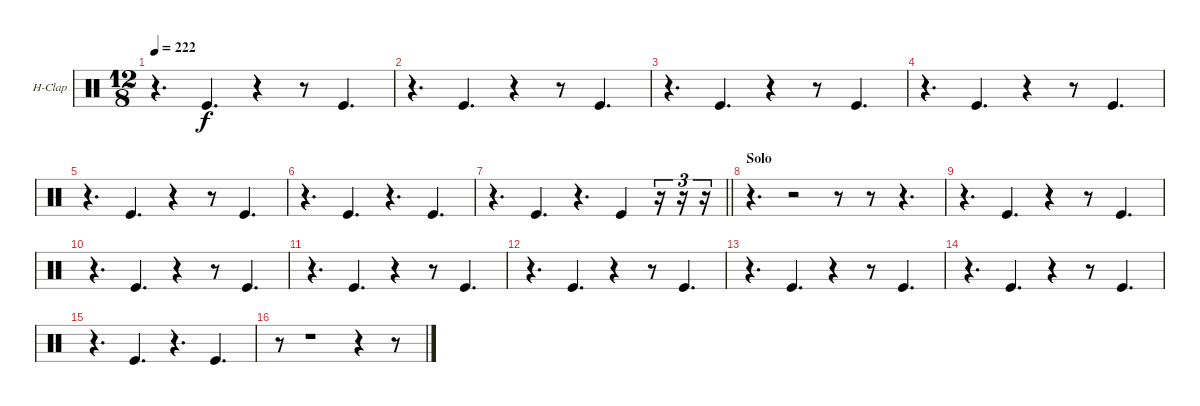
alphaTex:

\bracketExtendMode nobrackets
\firstSystemTrackNameOrientation horizontal
\otherSystemsTrackNameOrientation horizontal
\track ("Hand Clap" "H-Clap") {instrument percussion}
\staff {score}
\articulation defaults
\ts (12 8)
\tempo 222
\clef neutral
\ks c
r.4{d dy f} "Kick (hit)".4{d} r.4 r.8 "Kick (hit)".4{d} |
r.4{d} "Kick (hit)".4{d} r.4 r.8 "Kick (hit)".4{d} |
r.4{d} "Kick (hit)".4{d} r.4 r.8 "Kick (hit)".4{d} |
r.4{d} "Kick (hit)".4{d} r.4 r.8 "Kick (hit)".4{d} |
r.4{d} "Kick (hit)".4{d} r.4 r.8 "Kick (hit)".4{d} |
r.4{d} "Kick (hit)".4{d} r.4{d} "Kick (hit)".4{d} |
\barLineRight lightlight
r.4{d} "Kick (hit)".4{d} r.4{d} "Kick (hit)".4 r.16{tu (3 2)} r.16{tu (3 2)} r.16{tu (3 2)} |
\section ("" "Solo")
r.4{d} r.2 r.8 r.8 r.4{d} |
r.4{d} "Kick (hit)".4{d} r.4 r.8 "Kick (hit)".4{d} |
r.4{d} "Kick (hit)".4{d} r.4 r.8 "Kick (hit)".4{d} |
r.4{d} "Kick (hit)".4{d} r.4 r.8 "Kick (hit)".4{d} |
r.4{d} "Kick (hit)".4{d} r.4 r.8 "Kick (hit)".4{d} |
r.4{d} "Kick (hit)".4{d} r.4 r.8 "Kick (hit)".4{d} |
r.4{d} "Kick (hit)".4{d} r.4 r.8 "Kick (hit)".4{d} |
r.4{d} "Kick (hit)".4{d} r.4{d} "Kick (hit)".4{d} |
r.8 r.1 r.4 r.8
